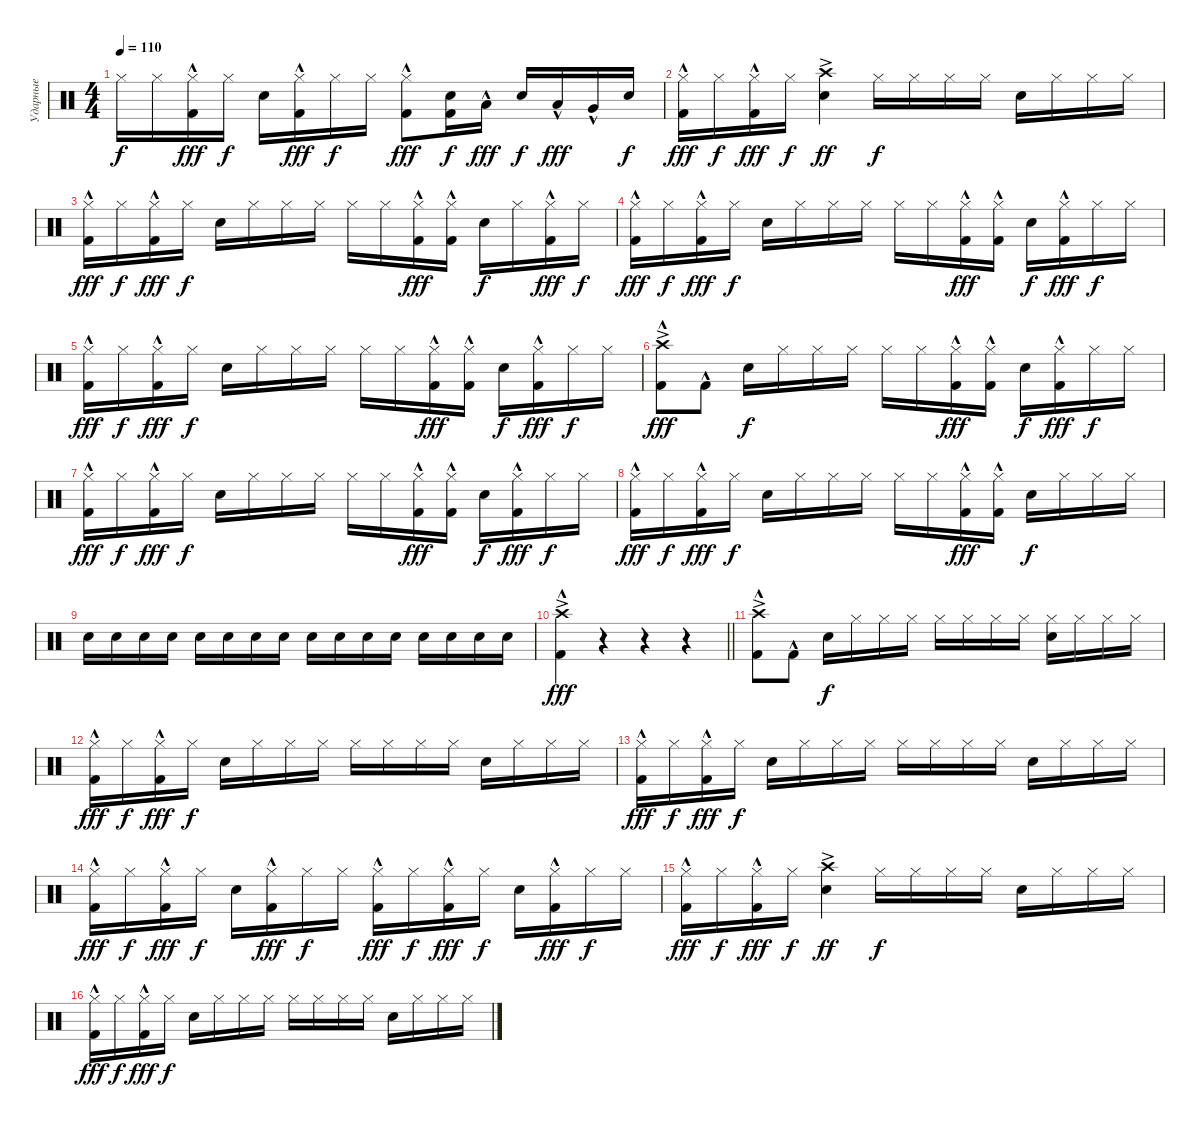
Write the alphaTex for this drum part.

\track ("Ударные" "Ударные") {instrument percussion}
\staff {score}
\articulation defaults
\ts (4 4)
\tempo 110
\clef neutral
\ks c "Hi-Hat (closed)".16{dy f} "Hi-Hat (closed)".16
("Hi-Hat (closed)" "Kick (hit) 2"{hac}).16{dy fff} "Hi-Hat (closed)".16{dy f} "Snare (hit) 2".16 ("Hi-Hat (closed)" "Kick (hit) 2"{hac}).16{dy fff} "Hi-Hat (closed)".16{dy f} "Hi-Hat (closed)".16 ("Hi-Hat (closed)" "Kick (hit) 2"{hac}).8{dy fff} ("Snare (hit) 2" "Kick (hit) 2").16{dy f} "Low Tom (hit)"{hac}.16{dy fff} "Snare (hit) 2".16{dy f} "Low Tom (hit)"{hac}.16{dy fff} "Very Low Tom (hit)"{hac}.16 "Snare (hit) 2".16{dy f} |
("Hi-Hat (closed)" "Kick (hit) 2"{hac}).16{dy fff} "Hi-Hat (closed)".16{dy f} ("Hi-Hat (closed)" "Kick (hit) 2"{hac}).16{dy fff} "Hi-Hat (closed)".16{dy f} ("Crash high (hit)"{ac} "Snare (hit) 2").4{dy ff} "Hi-Hat (closed)".16{dy f} "Hi-Hat (closed)".16 "Hi-Hat (closed)".16 "Hi-Hat (closed)".16 "Snare (hit) 2".16 "Hi-Hat (closed)".16 "Hi-Hat (closed)".16 "Hi-Hat (closed)".16 |
("Hi-Hat (closed)" "Kick (hit) 2"{hac}).16{dy fff} "Hi-Hat (closed)".16{dy f} ("Hi-Hat (closed)" "Kick (hit) 2"{hac}).16{dy fff} "Hi-Hat (closed)".16{dy f} "Snare (hit) 2".16 "Hi-Hat (closed)".16 "Hi-Hat (closed)".16 "Hi-Hat (closed)".16 "Hi-Hat (closed)".16 "Hi-Hat (closed)".16 ("Hi-Hat (closed)" "Kick (hit) 2"{hac}).16{dy fff} ("Hi-Hat (closed)" "Kick (hit) 2"{hac}).16 "Snare (hit) 2".16{dy f} "Hi-Hat (closed)".16 ("Hi-Hat (closed)" "Kick (hit) 2"{hac}).16{dy fff} "Hi-Hat (closed)".16{dy f} |
("Hi-Hat (closed)" "Kick (hit) 2"{hac}).16{dy fff} "Hi-Hat (closed)".16{dy f} ("Hi-Hat (closed)" "Kick (hit) 2"{hac}).16{dy fff} "Hi-Hat (closed)".16{dy f} "Snare (hit) 2".16 "Hi-Hat (closed)".16 "Hi-Hat (closed)".16 "Hi-Hat (closed)".16 "Hi-Hat (closed)".16 "Hi-Hat (closed)".16 ("Hi-Hat (closed)" "Kick (hit) 2"{hac}).16{dy fff} ("Hi-Hat (closed)" "Kick (hit) 2"{hac}).16 "Snare (hit) 2".16{dy f} ("Hi-Hat (closed)" "Kick (hit) 2"{hac}).16{dy fff} "Hi-Hat (closed)".16{dy f} "Hi-Hat (closed)".16 |
("Hi-Hat (closed)" "Kick (hit) 2"{hac}).16{dy fff} "Hi-Hat (closed)".16{dy f} ("Hi-Hat (closed)" "Kick (hit) 2"{hac}).16{dy fff} "Hi-Hat (closed)".16{dy f} "Snare (hit) 2".16 "Hi-Hat (closed)".16 "Hi-Hat (closed)".16 "Hi-Hat (closed)".16 "Hi-Hat (closed)".16 "Hi-Hat (closed)".16 ("Hi-Hat (closed)" "Kick (hit) 2"{hac}).16{dy fff} ("Hi-Hat (closed)" "Kick (hit) 2"{hac}).16 "Snare (hit) 2".16{dy f} ("Hi-Hat (closed)" "Kick (hit) 2"{hac}).16{dy fff} "Hi-Hat (closed)".16{dy f} "Hi-Hat (closed)".16 |
("Crash high (hit)"{ac} "Kick (hit) 2"{hac}).8{dy fff} "Kick (hit) 2"{hac}.8 "Snare (hit) 2".16{dy f} "Hi-Hat (closed)".16 "Hi-Hat (closed)".16 "Hi-Hat (closed)".16 "Hi-Hat (closed)".16 "Hi-Hat (closed)".16 ("Hi-Hat (closed)" "Kick (hit) 2"{hac}).16{dy fff} ("Hi-Hat (closed)" "Kick (hit) 2"{hac}).16 "Snare (hit) 2".16{dy f} ("Hi-Hat (closed)" "Kick (hit) 2"{hac}).16{dy fff} "Hi-Hat (closed)".16{dy f} "Hi-Hat (closed)".16 |
("Hi-Hat (closed)" "Kick (hit) 2"{hac}).16{dy fff} "Hi-Hat (closed)".16{dy f} ("Hi-Hat (closed)" "Kick (hit) 2"{hac}).16{dy fff} "Hi-Hat (closed)".16{dy f} "Snare (hit) 2".16 "Hi-Hat (closed)".16 "Hi-Hat (closed)".16 "Hi-Hat (closed)".16 "Hi-Hat (closed)".16 "Hi-Hat (closed)".16 ("Hi-Hat (closed)" "Kick (hit) 2"{hac}).16{dy fff} ("Hi-Hat (closed)" "Kick (hit) 2"{hac}).16 "Snare (hit) 2".16{dy f} ("Hi-Hat (closed)" "Kick (hit) 2"{hac}).16{dy fff} "Hi-Hat (closed)".16{dy f} "Hi-Hat (closed)".16 |
("Hi-Hat (closed)" "Kick (hit) 2"{hac}).16{dy fff} "Hi-Hat (closed)".16{dy f} ("Hi-Hat (closed)" "Kick (hit) 2"{hac}).16{dy fff} "Hi-Hat (closed)".16{dy f} "Snare (hit) 2".16 "Hi-Hat (closed)".16 "Hi-Hat (closed)".16 "Hi-Hat (closed)".16 "Hi-Hat (closed)".16 "Hi-Hat (closed)".16 ("Hi-Hat (closed)" "Kick (hit) 2"{hac}).16{dy fff} ("Hi-Hat (closed)" "Kick (hit) 2"{hac}).16 "Snare (hit) 2".16{dy f} "Hi-Hat (closed)".16 "Hi-Hat (closed)".16 "Hi-Hat (closed)".16 |
"Snare (hit) 2".16 "Snare (hit) 2".16 "Snare (hit) 2".16 "Snare (hit) 2".16 "Snare (hit) 2".16 "Snare (hit) 2".16 "Snare (hit) 2".16 "Snare (hit) 2".16 "Snare (hit) 2".16 "Snare (hit) 2".16 "Snare (hit) 2".16 "Snare (hit) 2".16 "Snare (hit) 2".16 "Snare (hit) 2".16 "Snare (hit) 2".16 "Snare (hit) 2".16 |
\barLineRight lightlight
("Crash high (hit)"{ac} "Kick (hit) 2"{hac}).4{dy fff} r.4 r.4 r.4 |
("Crash high (hit)"{ac} "Kick (hit) 2"{hac}).8 "Kick (hit) 2"{hac}.8 "Snare (hit) 2".16{dy f} "Hi-Hat (closed)".16 "Hi-Hat (closed)".16 "Hi-Hat (closed)".16 "Hi-Hat (closed)".16 "Hi-Hat (closed)".16 "Hi-Hat (closed)".16 "Hi-Hat (closed)".16 ("Hi-Hat (closed)" "Snare (hit) 2").16 "Hi-Hat (closed)".16 "Hi-Hat (closed)".16 "Hi-Hat (closed)".16 |
("Hi-Hat (closed)" "Kick (hit) 2"{hac}).16{dy fff} "Hi-Hat (closed)".16{dy f} ("Hi-Hat (closed)" "Kick (hit) 2"{hac}).16{dy fff} "Hi-Hat (closed)".16{dy f} "Snare (hit) 2".16 "Hi-Hat (closed)".16 "Hi-Hat (closed)".16 "Hi-Hat (closed)".16 "Hi-Hat (closed)".16 "Hi-Hat (closed)".16 "Hi-Hat (closed)".16 "Hi-Hat (closed)".16 "Snare (hit) 2".16 "Hi-Hat (closed)".16 "Hi-Hat (closed)".16 "Hi-Hat (closed)".16 |
("Hi-Hat (closed)" "Kick (hit) 2"{hac}).16{dy fff} "Hi-Hat (closed)".16{dy f} ("Hi-Hat (closed)" "Kick (hit) 2"{hac}).16{dy fff} "Hi-Hat (closed)".16{dy f} "Snare (hit) 2".16 "Hi-Hat (closed)".16 "Hi-Hat (closed)".16 "Hi-Hat (closed)".16 "Hi-Hat (closed)".16 "Hi-Hat (closed)".16 "Hi-Hat (closed)".16 "Hi-Hat (closed)".16 "Snare (hit) 2".16 "Hi-Hat (closed)".16 "Hi-Hat (closed)".16 "Hi-Hat (closed)".16 |
("Hi-Hat (closed)" "Kick (hit) 2"{hac}).16{dy fff} "Hi-Hat (closed)".16{dy f} ("Hi-Hat (closed)" "Kick (hit) 2"{hac}).16{dy fff} "Hi-Hat (closed)".16{dy f} "Snare (hit) 2".16 ("Hi-Hat (closed)" "Kick (hit) 2"{hac}).16{dy fff} "Hi-Hat (closed)".16{dy f} "Hi-Hat (closed)".16 ("Hi-Hat (closed)" "Kick (hit) 2"{hac}).16{dy fff} "Hi-Hat (closed)".16{dy f} ("Hi-Hat (closed)" "Kick (hit) 2"{hac}).16{dy fff} "Hi-Hat (closed)".16{dy f} "Snare (hit) 2".16 ("Hi-Hat (closed)" "Kick (hit) 2"{hac}).16{dy fff} "Hi-Hat (closed)".16{dy f} "Hi-Hat (closed)".16 |
("Hi-Hat (closed)" "Kick (hit) 2"{hac}).16{dy fff} "Hi-Hat (closed)".16{dy f} ("Hi-Hat (closed)" "Kick (hit) 2"{hac}).16{dy fff} "Hi-Hat (closed)".16{dy f} ("Crash high (hit)"{ac} "Snare (hit) 2").4{dy ff} "Hi-Hat (closed)".16{dy f} "Hi-Hat (closed)".16 "Hi-Hat (closed)".16 "Hi-Hat (closed)".16 "Snare (hit) 2".16 "Hi-Hat (closed)".16 "Hi-Hat (closed)".16 "Hi-Hat (closed)".16 |
("Hi-Hat (closed)" "Kick (hit) 2"{hac}).16{dy fff} "Hi-Hat (closed)".16{dy f} ("Hi-Hat (closed)" "Kick (hit) 2"{hac}).16{dy fff} "Hi-Hat (closed)".16{dy f} "Snare (hit) 2".16 "Hi-Hat (closed)".16 "Hi-Hat (closed)".16 "Hi-Hat (closed)".16 "Hi-Hat (closed)".16 "Hi-Hat (closed)".16 "Hi-Hat (closed)".16 "Hi-Hat (closed)".16 "Snare (hit) 2".16 "Hi-Hat (closed)".16 "Hi-Hat (closed)".16 "Hi-Hat (closed)".16
